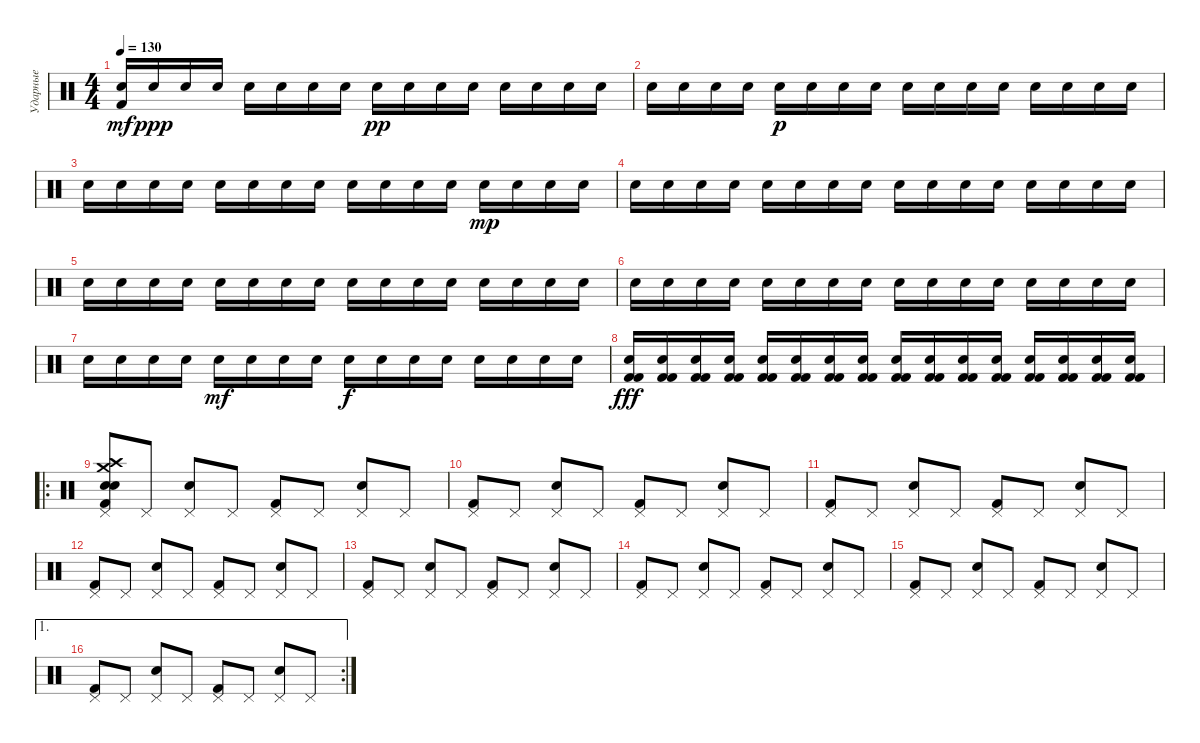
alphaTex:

\track ("Ударные" "Ударные") {instrument percussion}
\staff {score}
\articulation defaults
\ts (4 4)
\tempo 130
\clef neutral
\ks c
("Snare (hit) 2" "Kick (hit) 2").16{dy mf} "Snare (hit) 2".16{dy ppp} "Snare (hit) 2".16 "Snare (hit) 2".16 "Snare (hit) 2".16 "Snare (hit) 2".16 "Snare (hit) 2".16 "Snare (hit) 2".16 "Snare (hit) 2".16{dy pp} "Snare (hit) 2".16 "Snare (hit) 2".16 "Snare (hit) 2".16 "Snare (hit) 2".16 "Snare (hit) 2".16 "Snare (hit) 2".16 "Snare (hit) 2".16 |
"Snare (hit) 2".16 "Snare (hit) 2".16 "Snare (hit) 2".16 "Snare (hit) 2".16 "Snare (hit) 2".16{dy p} "Snare (hit) 2".16 "Snare (hit) 2".16 "Snare (hit) 2".16 "Snare (hit) 2".16 "Snare (hit) 2".16 "Snare (hit) 2".16 "Snare (hit) 2".16 "Snare (hit) 2".16 "Snare (hit) 2".16 "Snare (hit) 2".16 "Snare (hit) 2".16 |
"Snare (hit) 2".16 "Snare (hit) 2".16 "Snare (hit) 2".16 "Snare (hit) 2".16 "Snare (hit) 2".16 "Snare (hit) 2".16 "Snare (hit) 2".16 "Snare (hit) 2".16 "Snare (hit) 2".16 "Snare (hit) 2".16 "Snare (hit) 2".16 "Snare (hit) 2".16 "Snare (hit) 2".16{dy mp} "Snare (hit) 2".16 "Snare (hit) 2".16 "Snare (hit) 2".16 |
"Snare (hit) 2".16 "Snare (hit) 2".16 "Snare (hit) 2".16 "Snare (hit) 2".16 "Snare (hit) 2".16 "Snare (hit) 2".16 "Snare (hit) 2".16 "Snare (hit) 2".16 "Snare (hit) 2".16 "Snare (hit) 2".16 "Snare (hit) 2".16 "Snare (hit) 2".16 "Snare (hit) 2".16 "Snare (hit) 2".16 "Snare (hit) 2".16 "Snare (hit) 2".16 |
"Snare (hit) 2".16 "Snare (hit) 2".16 "Snare (hit) 2".16 "Snare (hit) 2".16 "Snare (hit) 2".16 "Snare (hit) 2".16 "Snare (hit) 2".16 "Snare (hit) 2".16 "Snare (hit) 2".16 "Snare (hit) 2".16 "Snare (hit) 2".16 "Snare (hit) 2".16 "Snare (hit) 2".16 "Snare (hit) 2".16 "Snare (hit) 2".16 "Snare (hit) 2".16 |
"Snare (hit) 2".16 "Snare (hit) 2".16 "Snare (hit) 2".16 "Snare (hit) 2".16 "Snare (hit) 2".16 "Snare (hit) 2".16 "Snare (hit) 2".16 "Snare (hit) 2".16 "Snare (hit) 2".16 "Snare (hit) 2".16 "Snare (hit) 2".16 "Snare (hit) 2".16 "Snare (hit) 2".16 "Snare (hit) 2".16 "Snare (hit) 2".16 "Snare (hit) 2".16 |
"Snare (hit) 2".16 "Snare (hit) 2".16 "Snare (hit) 2".16 "Snare (hit) 2".16 "Snare (hit) 2".16{dy mf} "Snare (hit) 2".16 "Snare (hit) 2".16 "Snare (hit) 2".16 "Snare (hit) 2".16{dy f} "Snare (hit) 2".16 "Snare (hit) 2".16 "Snare (hit) 2".16 "Snare (hit) 2".16 "Snare (hit) 2".16 "Snare (hit) 2".16 "Snare (hit) 2".16 |
("Snare (hit) 2" "Kick (hit) 2" "Kick (hit) 2").16{dy fff} ("Snare (hit) 2" "Kick (hit) 2" "Kick (hit) 2").16 ("Snare (hit) 2" "Kick (hit) 2" "Kick (hit) 2").16 ("Snare (hit) 2" "Kick (hit) 2" "Kick (hit) 2").16 ("Snare (hit) 2" "Kick (hit) 2" "Kick (hit) 2").16 ("Snare (hit) 2" "Kick (hit) 2" "Kick (hit) 2").16 ("Snare (hit) 2" "Kick (hit) 2" "Kick (hit) 2").16 ("Snare (hit) 2" "Kick (hit) 2" "Kick (hit) 2").16 ("Snare (hit) 2" "Kick (hit) 2" "Kick (hit) 2").16 ("Snare (hit) 2" "Kick (hit) 2" "Kick (hit) 2").16 ("Snare (hit) 2" "Kick (hit) 2" "Kick (hit) 2").16 ("Snare (hit) 2" "Kick (hit) 2" "Kick (hit) 2").16 ("Snare (hit) 2" "Kick (hit) 2" "Kick (hit) 2").16 ("Snare (hit) 2" "Kick (hit) 2" "Kick (hit) 2").16 ("Snare (hit) 2" "Kick (hit) 2" "Kick (hit) 2").16 ("Snare (hit) 2" "Kick (hit) 2" "Kick (hit) 2").16 |
\ro
("Pedal Hi-Hat (hit)" "Crash high (hit)" "Crash medium (hit)" "Snare (hit) 2" "Electric Snare (hit)" "Kick (hit) 2").8 "Pedal Hi-Hat (hit)".8 ("Pedal Hi-Hat (hit)" "Snare (hit) 2").8 "Pedal Hi-Hat (hit)".8 ("Pedal Hi-Hat (hit)" "Kick (hit) 2").8 "Pedal Hi-Hat (hit)".8 ("Pedal Hi-Hat (hit)" "Snare (hit) 2").8 "Pedal Hi-Hat (hit)".8 |
("Pedal Hi-Hat (hit)" "Kick (hit) 2").8 "Pedal Hi-Hat (hit)".8 ("Pedal Hi-Hat (hit)" "Snare (hit) 2").8 "Pedal Hi-Hat (hit)".8 ("Pedal Hi-Hat (hit)" "Kick (hit) 2").8 "Pedal Hi-Hat (hit)".8 ("Pedal Hi-Hat (hit)" "Snare (hit) 2").8 "Pedal Hi-Hat (hit)".8 |
("Pedal Hi-Hat (hit)" "Kick (hit) 2").8 "Pedal Hi-Hat (hit)".8 ("Pedal Hi-Hat (hit)" "Snare (hit) 2").8 "Pedal Hi-Hat (hit)".8 ("Pedal Hi-Hat (hit)" "Kick (hit) 2").8 "Pedal Hi-Hat (hit)".8 ("Pedal Hi-Hat (hit)" "Snare (hit) 2").8 "Pedal Hi-Hat (hit)".8 |
("Pedal Hi-Hat (hit)" "Kick (hit) 2").8 "Pedal Hi-Hat (hit)".8 ("Pedal Hi-Hat (hit)" "Snare (hit) 2").8 "Pedal Hi-Hat (hit)".8 ("Pedal Hi-Hat (hit)" "Kick (hit) 2").8 "Pedal Hi-Hat (hit)".8 ("Pedal Hi-Hat (hit)" "Snare (hit) 2").8 "Pedal Hi-Hat (hit)".8 |
("Pedal Hi-Hat (hit)" "Kick (hit) 2").8 "Pedal Hi-Hat (hit)".8 ("Pedal Hi-Hat (hit)" "Snare (hit) 2").8 "Pedal Hi-Hat (hit)".8 ("Pedal Hi-Hat (hit)" "Kick (hit) 2").8 "Pedal Hi-Hat (hit)".8 ("Pedal Hi-Hat (hit)" "Snare (hit) 2").8 "Pedal Hi-Hat (hit)".8 |
("Pedal Hi-Hat (hit)" "Kick (hit) 2").8 "Pedal Hi-Hat (hit)".8 ("Pedal Hi-Hat (hit)" "Snare (hit) 2").8 "Pedal Hi-Hat (hit)".8 ("Pedal Hi-Hat (hit)" "Kick (hit) 2").8 "Pedal Hi-Hat (hit)".8 ("Pedal Hi-Hat (hit)" "Snare (hit) 2").8 "Pedal Hi-Hat (hit)".8 |
("Pedal Hi-Hat (hit)" "Kick (hit) 2").8 "Pedal Hi-Hat (hit)".8 ("Pedal Hi-Hat (hit)" "Snare (hit) 2").8 "Pedal Hi-Hat (hit)".8 ("Pedal Hi-Hat (hit)" "Kick (hit) 2").8 "Pedal Hi-Hat (hit)".8 ("Pedal Hi-Hat (hit)" "Snare (hit) 2").8 "Pedal Hi-Hat (hit)".8 |
\ae 1
\rc 2
("Pedal Hi-Hat (hit)" "Kick (hit) 2").8 "Pedal Hi-Hat (hit)".8 ("Pedal Hi-Hat (hit)" "Snare (hit) 2").8 "Pedal Hi-Hat (hit)".8 ("Pedal Hi-Hat (hit)" "Kick (hit) 2").8 "Pedal Hi-Hat (hit)".8 ("Pedal Hi-Hat (hit)" "Snare (hit) 2").8 "Pedal Hi-Hat (hit)".8
